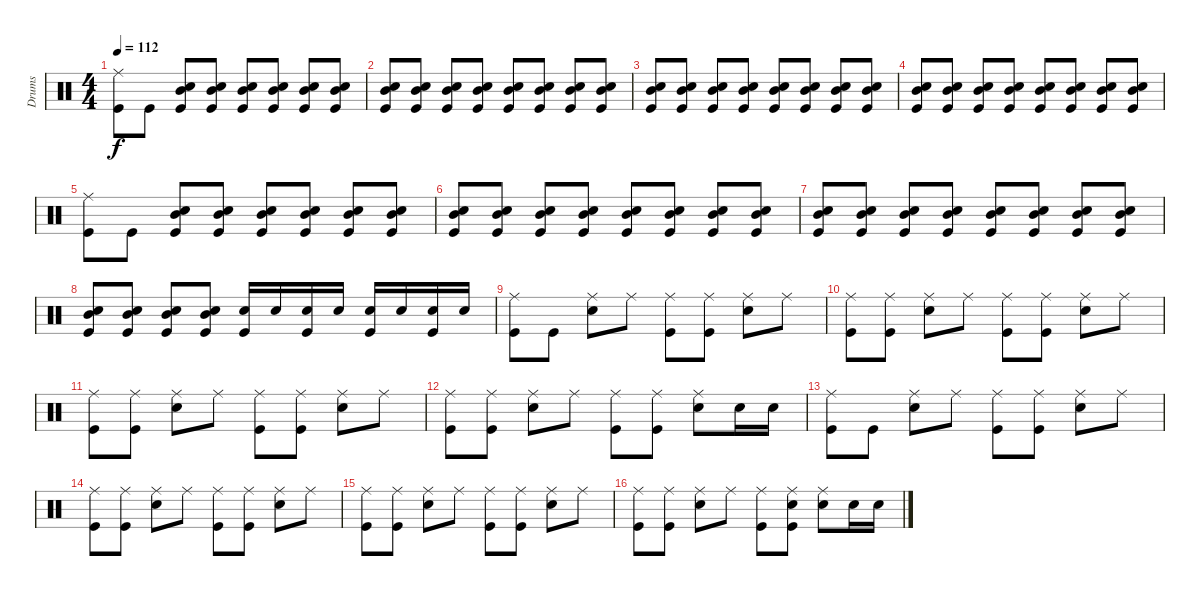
\track ("Drums" "Drums") {instrument percussion}
\staff {score}
\articulation defaults
\ts (4 4)
\tempo 112
\clef neutral
\ks c
("Ride (middle)" "Kick (hit)").8{dy f} "Kick (hit)".8 ("Snare (hit) 2" "Mid Tom (hit)" "Kick (hit)").8 ("Snare (hit) 2" "Mid Tom (hit)" "Kick (hit)").8 ("Snare (hit) 2" "Mid Tom (hit)" "Kick (hit)").8 ("Snare (hit) 2" "Mid Tom (hit)" "Kick (hit)").8 ("Snare (hit) 2" "Mid Tom (hit)" "Kick (hit)").8 ("Snare (hit) 2" "Mid Tom (hit)" "Kick (hit)").8 |
("Snare (hit) 2" "Mid Tom (hit)" "Kick (hit)").8 ("Snare (hit) 2" "Mid Tom (hit)" "Kick (hit)").8 ("Snare (hit) 2" "Mid Tom (hit)" "Kick (hit)").8 ("Snare (hit) 2" "Mid Tom (hit)" "Kick (hit)").8 ("Snare (hit) 2" "Mid Tom (hit)" "Kick (hit)").8 ("Snare (hit) 2" "Mid Tom (hit)" "Kick (hit)").8 ("Snare (hit) 2" "Mid Tom (hit)" "Kick (hit)").8 ("Snare (hit) 2" "Mid Tom (hit)" "Kick (hit)").8 |
("Snare (hit) 2" "Mid Tom (hit)" "Kick (hit)").8 ("Snare (hit) 2" "Mid Tom (hit)" "Kick (hit)").8 ("Snare (hit) 2" "Mid Tom (hit)" "Kick (hit)").8 ("Snare (hit) 2" "Mid Tom (hit)" "Kick (hit)").8 ("Snare (hit) 2" "Mid Tom (hit)" "Kick (hit)").8 ("Snare (hit) 2" "Mid Tom (hit)" "Kick (hit)").8 ("Snare (hit) 2" "Mid Tom (hit)" "Kick (hit)").8 ("Snare (hit) 2" "Mid Tom (hit)" "Kick (hit)").8 |
("Snare (hit) 2" "Mid Tom (hit)" "Kick (hit)").8 ("Snare (hit) 2" "Mid Tom (hit)" "Kick (hit)").8 ("Snare (hit) 2" "Mid Tom (hit)" "Kick (hit)").8 ("Snare (hit) 2" "Mid Tom (hit)" "Kick (hit)").8 ("Snare (hit) 2" "Mid Tom (hit)" "Kick (hit)").8 ("Snare (hit) 2" "Mid Tom (hit)" "Kick (hit)").8 ("Snare (hit) 2" "Mid Tom (hit)" "Kick (hit)").8 ("Snare (hit) 2" "Mid Tom (hit)" "Kick (hit)").8 |
("Ride (middle)" "Kick (hit)").8 "Kick (hit)".8 ("Snare (hit) 2" "Mid Tom (hit)" "Kick (hit)").8 ("Snare (hit) 2" "Mid Tom (hit)" "Kick (hit)").8 ("Snare (hit) 2" "Mid Tom (hit)" "Kick (hit)").8 ("Snare (hit) 2" "Mid Tom (hit)" "Kick (hit)").8 ("Snare (hit) 2" "Mid Tom (hit)" "Kick (hit)").8 ("Snare (hit) 2" "Mid Tom (hit)" "Kick (hit)").8 |
("Snare (hit) 2" "Mid Tom (hit)" "Kick (hit)").8 ("Snare (hit) 2" "Mid Tom (hit)" "Kick (hit)").8 ("Snare (hit) 2" "Mid Tom (hit)" "Kick (hit)").8 ("Snare (hit) 2" "Mid Tom (hit)" "Kick (hit)").8 ("Snare (hit) 2" "Mid Tom (hit)" "Kick (hit)").8 ("Snare (hit) 2" "Mid Tom (hit)" "Kick (hit)").8 ("Snare (hit) 2" "Mid Tom (hit)" "Kick (hit)").8 ("Snare (hit) 2" "Mid Tom (hit)" "Kick (hit)").8 |
("Snare (hit) 2" "Mid Tom (hit)" "Kick (hit)").8 ("Snare (hit) 2" "Mid Tom (hit)" "Kick (hit)").8 ("Snare (hit) 2" "Mid Tom (hit)" "Kick (hit)").8 ("Snare (hit) 2" "Mid Tom (hit)" "Kick (hit)").8 ("Snare (hit) 2" "Mid Tom (hit)" "Kick (hit)").8 ("Snare (hit) 2" "Mid Tom (hit)" "Kick (hit)").8 ("Snare (hit) 2" "Mid Tom (hit)" "Kick (hit)").8 ("Snare (hit) 2" "Mid Tom (hit)" "Kick (hit)").8 |
("Snare (hit) 2" "Mid Tom (hit)" "Kick (hit)").8 ("Snare (hit) 2" "Mid Tom (hit)" "Kick (hit)").8 ("Snare (hit) 2" "Mid Tom (hit)" "Kick (hit)").8 ("Snare (hit) 2" "Mid Tom (hit)" "Kick (hit)").8 ("Snare (hit) 2" "Kick (hit)").16 "Snare (hit) 2".16 ("Snare (hit) 2" "Kick (hit)").16 "Snare (hit) 2".16 ("Snare (hit) 2" "Kick (hit)").16 "Snare (hit) 2".16 ("Snare (hit) 2" "Kick (hit)").16 "Snare (hit) 2".16 |
("Ride (middle)" "Kick (hit)").8 "Kick (hit)".8 ("Ride (middle)" "Snare (hit) 2").8 "Ride (middle)".8 ("Ride (middle)" "Kick (hit)").8 ("Ride (middle)" "Kick (hit)").8 ("Ride (middle)" "Snare (hit) 2").8 "Ride (middle)".8 |
("Ride (middle)" "Kick (hit)").8 ("Ride (middle)" "Kick (hit)").8 ("Ride (middle)" "Snare (hit) 2").8 "Ride (middle)".8 ("Ride (middle)" "Kick (hit)").8 ("Ride (middle)" "Kick (hit)").8 ("Ride (middle)" "Snare (hit) 2").8 "Ride (middle)".8 |
("Ride (middle)" "Kick (hit)").8 ("Ride (middle)" "Kick (hit)").8 ("Ride (middle)" "Snare (hit) 2").8 "Ride (middle)".8 ("Ride (middle)" "Kick (hit)").8 ("Ride (middle)" "Kick (hit)").8 ("Ride (middle)" "Snare (hit) 2").8 "Ride (middle)".8 |
("Ride (middle)" "Kick (hit)").8 ("Ride (middle)" "Kick (hit)").8 ("Ride (middle)" "Snare (hit) 2").8 "Ride (middle)".8 ("Ride (middle)" "Kick (hit)").8 ("Ride (middle)" "Kick (hit)").8 ("Ride (middle)" "Snare (hit) 2").8 "Snare (hit) 2".16 "Snare (hit) 2".16 |
("Ride (middle)" "Kick (hit)").8 "Kick (hit)".8 ("Ride (middle)" "Snare (hit) 2").8 "Ride (middle)".8 ("Ride (middle)" "Kick (hit)").8 ("Ride (middle)" "Kick (hit)").8 ("Ride (middle)" "Snare (hit) 2").8 "Ride (middle)".8 |
("Ride (middle)" "Kick (hit)").8 ("Ride (middle)" "Kick (hit)").8 ("Ride (middle)" "Snare (hit) 2").8 "Ride (middle)".8 ("Ride (middle)" "Kick (hit)").8 ("Ride (middle)" "Kick (hit)").8 ("Ride (middle)" "Snare (hit) 2").8 "Ride (middle)".8 |
("Ride (middle)" "Kick (hit)").8 ("Ride (middle)" "Kick (hit)").8 ("Ride (middle)" "Snare (hit) 2").8 "Ride (middle)".8 ("Ride (middle)" "Kick (hit)").8 ("Ride (middle)" "Kick (hit)").8 ("Ride (middle)" "Snare (hit) 2").8 "Ride (middle)".8 |
("Ride (middle)" "Kick (hit)").8 ("Ride (middle)" "Kick (hit)").8 ("Ride (middle)" "Snare (hit) 2").8 "Ride (middle)".8 ("Ride (middle)" "Kick (hit)").8 ("Ride (middle)" "Snare (hit) 2" "Kick (hit)").8 ("Ride (middle)" "Snare (hit) 2").8 "Snare (hit) 2".16 "Snare (hit) 2".16
